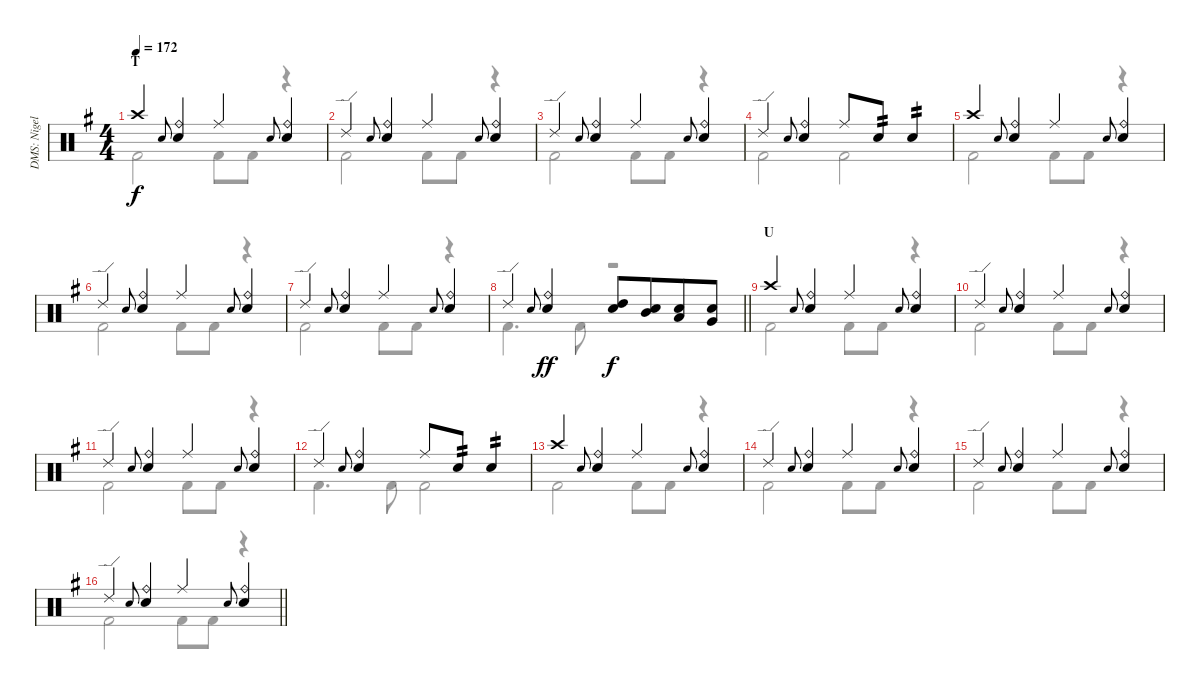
\track ("DMS: Nigel Olsson" "DMS: Nigel") {instrument percussion}
\staff {score}
\articulation defaults
\voice
\ts (4 4)
\section ("" "T")
\tempo 172
\clef neutral
\ks g "Crash high (hit)".4{dy f} "Snare (hit) 2".8{gr onbeat}
("Ride (bell)" "Electric Snare (hit)").4 "Ride (middle)".4 "Snare (hit) 2".8{gr onbeat} ("Ride (bell)" "Electric Snare (hit)").4 |
"Ride (edge) 2".4 "Snare (hit) 2".8{gr onbeat} ("Ride (bell)" "Electric Snare (hit)").4 "Ride (middle)".4 "Snare (hit) 2".8{gr onbeat} ("Ride (bell)" "Electric Snare (hit)").4 |
"Ride (edge) 2".4 "Snare (hit) 2".8{gr onbeat} ("Ride (bell)" "Electric Snare (hit)").4 "Ride (middle)".4 "Snare (hit) 2".8{gr onbeat} ("Ride (bell)" "Electric Snare (hit)").4 |
"Ride (edge) 2".4 "Snare (hit) 2".8{gr onbeat} ("Ride (bell)" "Electric Snare (hit)").4 "Ride (middle)".8 "Electric Snare (hit)".8{tp 2} "Snare (hit) 2".4{tp 2} |
"Crash high (hit)".4 "Snare (hit) 2".8{gr onbeat} ("Ride (bell)" "Electric Snare (hit)").4 "Ride (middle)".4 "Snare (hit) 2".8{gr onbeat} ("Ride (bell)" "Electric Snare (hit)").4 |
"Ride (edge) 2".4 "Snare (hit) 2".8{gr onbeat} ("Ride (bell)" "Electric Snare (hit)").4 "Ride (middle)".4 "Snare (hit) 2".8{gr onbeat} ("Ride (bell)" "Electric Snare (hit)").4 |
"Ride (edge) 2".4 "Snare (hit) 2".8{gr onbeat} ("Ride (bell)" "Electric Snare (hit)").4 "Ride (middle)".4 "Snare (hit) 2".8{gr onbeat} ("Ride (bell)" "Electric Snare (hit)").4 |
\barLineRight lightlight "Ride (edge) 2".4 "Snare (hit) 2".8{gr onbeat}
("Ride (bell)" "Electric Snare (hit)").4{dy ff} ("Electric Snare (hit)" "High Tom (hit)").8{dy f} ("Electric Snare (hit)" "Mid Tom (hit)").8{beam merge} ("Electric Snare (hit)" "Low Tom (hit)").8 ("Electric Snare (hit)" "Very Low Tom (hit)").8 |
\section ("" "U")
"Crash high (hit)".4 "Snare (hit) 2".8{gr onbeat} ("Ride (bell)" "Electric Snare (hit)").4 "Ride (middle)".4 "Snare (hit) 2".8{gr onbeat} ("Ride (bell)" "Electric Snare (hit)").4 |
"Ride (edge) 2".4 "Snare (hit) 2".8{gr onbeat} ("Ride (bell)" "Electric Snare (hit)").4 "Ride (middle)".4 "Snare (hit) 2".8{gr onbeat} ("Ride (bell)" "Electric Snare (hit)").4 |
"Ride (edge) 2".4 "Snare (hit) 2".8{gr onbeat} ("Ride (bell)" "Electric Snare (hit)").4 "Ride (middle)".4 "Snare (hit) 2".8{gr onbeat} ("Ride (bell)" "Electric Snare (hit)").4 |
"Ride (edge) 2".4 "Snare (hit) 2".8{gr onbeat} ("Ride (bell)" "Electric Snare (hit)").4 "Ride (middle)".8 "Electric Snare (hit)".8{tp 2} "Snare (hit) 2".4{tp 2} |
"Crash high (hit)".4 "Snare (hit) 2".8{gr onbeat} ("Ride (bell)" "Electric Snare (hit)").4 "Ride (middle)".4 "Snare (hit) 2".8{gr onbeat} ("Ride (bell)" "Electric Snare (hit)").4 |
"Ride (edge) 2".4 "Snare (hit) 2".8{gr onbeat} ("Ride (bell)" "Electric Snare (hit)").4 "Ride (middle)".4 "Snare (hit) 2".8{gr onbeat} ("Ride (bell)" "Electric Snare (hit)").4 |
"Ride (edge) 2".4 "Snare (hit) 2".8{gr onbeat} ("Ride (bell)" "Electric Snare (hit)").4 "Ride (middle)".4 "Snare (hit) 2".8{gr onbeat} ("Ride (bell)" "Electric Snare (hit)").4 |
\barLineRight lightlight "Ride (edge) 2".4 "Snare (hit) 2".8{gr onbeat}
("Ride (bell)" "Electric Snare (hit)").4 "Ride (middle)".4 "Snare (hit) 2".8{gr onbeat} ("Ride (bell)" "Electric Snare (hit)").4
\voice
\clef neutral
\ottava regular
\simile none
\ks g "Kick (hit) 2".2{dy f} "Kick (hit) 2".8 "Kick (hit) 2".8
r.4 |
"Kick (hit) 2".2 "Kick (hit) 2".8 "Kick (hit) 2".8 r.4 |
"Kick (hit) 2".2 "Kick (hit) 2".8 "Kick (hit) 2".8 r.4 |
"Kick (hit) 2".2 "Kick (hit) 2".2 |
"Kick (hit) 2".2 "Kick (hit) 2".8 "Kick (hit) 2".8 r.4 |
"Kick (hit) 2".2 "Kick (hit) 2".8 "Kick (hit) 2".8 r.4 |
"Kick (hit) 2".2 "Kick (hit) 2".8 "Kick (hit) 2".8 r.4 |
\barLineRight lightlight "Kick (hit) 2".4{d} "Kick (hit) 2".8
r.2 |
"Kick (hit) 2".2 "Kick (hit) 2".8 "Kick (hit) 2".8 r.4 |
"Kick (hit) 2".2 "Kick (hit) 2".8 "Kick (hit) 2".8 r.4 |
"Kick (hit) 2".2 "Kick (hit) 2".8 "Kick (hit) 2".8 r.4 |
"Kick (hit) 2".4{d} "Kick (hit) 2".8 "Kick (hit) 2".2 |
"Kick (hit) 2".2 "Kick (hit) 2".8 "Kick (hit) 2".8 r.4 |
"Kick (hit) 2".2 "Kick (hit) 2".8 "Kick (hit) 2".8 r.4 |
"Kick (hit) 2".2 "Kick (hit) 2".8 "Kick (hit) 2".8 r.4 |
\barLineRight lightlight "Kick (hit) 2".2 "Kick (hit) 2".8 "Kick (hit) 2".8
r.4
